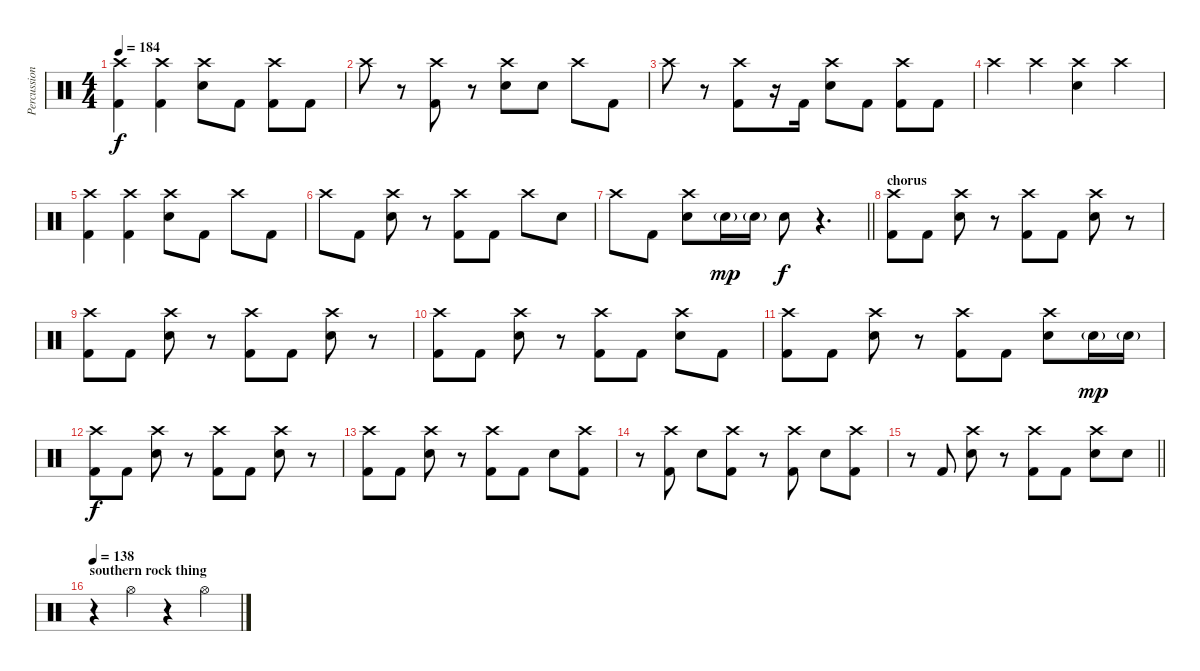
\track ("Percussion" "Percussion") {instrument percussion}
\staff {score}
\articulation defaults
\ts (4 4)
\tempo 184
\clef neutral
\ks c
("Crash high (hit)" "Kick (hit) 2").4{dy f} ("Crash high (hit)" "Kick (hit) 2").4 ("Crash high (hit)" "Electric Snare (hit)").8 "Kick (hit) 2".8 ("Crash high (hit)" "Kick (hit) 2").8 "Kick (hit) 2".8 |
"Crash high (hit)".8 r.8 ("Crash high (hit)" "Kick (hit) 2").8 r.8 ("Crash high (hit)" "Electric Snare (hit)").8 "Electric Snare (hit)".8 "Crash high (hit)".8 "Kick (hit) 2".8 |
"Crash high (hit)".8 r.8 ("Crash high (hit)" "Kick (hit) 2").8 r.16 "Kick (hit) 2".16 ("Crash high (hit)" "Electric Snare (hit)").8 "Kick (hit) 2".8 ("Crash high (hit)" "Kick (hit) 2").8 "Kick (hit) 2".8 |
"Crash high (hit)".4 "Crash high (hit)".4 ("Crash high (hit)" "Electric Snare (hit)").4 "Crash high (hit)".4 |
("Crash high (hit)" "Kick (hit) 2").4 ("Crash high (hit)" "Kick (hit) 2").4 ("Crash high (hit)" "Electric Snare (hit)").8 "Kick (hit) 2".8 "Crash high (hit)".8 "Kick (hit) 2".8 |
"Crash high (hit)".8 "Kick (hit) 2".8 ("Crash high (hit)" "Electric Snare (hit)").8 r.8 ("Crash high (hit)" "Kick (hit) 2").8 "Kick (hit) 2".8 "Crash high (hit)".8 "Electric Snare (hit)".8 |
\barLineRight lightlight "Crash high (hit)".8 "Kick (hit) 2".8
("Crash high (hit)" "Electric Snare (hit)").8 "Electric Snare (hit)"{g}.16{dy mp} "Electric Snare (hit)"{g}.16 "Electric Snare (hit)".8{dy f} r.4{d} |
\section ("" "chorus")
("Crash high (hit)" "Kick (hit) 2").8 "Kick (hit) 2".8 ("Crash high (hit)" "Electric Snare (hit)").8 r.8 ("Crash high (hit)" "Kick (hit) 2").8 "Kick (hit) 2".8 ("Crash high (hit)" "Electric Snare (hit)").8 r.8 |
("Crash high (hit)" "Kick (hit) 2").8 "Kick (hit) 2".8 ("Crash high (hit)" "Electric Snare (hit)").8 r.8 ("Crash high (hit)" "Kick (hit) 2").8 "Kick (hit) 2".8 ("Crash high (hit)" "Electric Snare (hit)").8 r.8 |
("Crash high (hit)" "Kick (hit) 2").8 "Kick (hit) 2".8 ("Crash high (hit)" "Electric Snare (hit)").8 r.8 ("Crash high (hit)" "Kick (hit) 2").8 "Kick (hit) 2".8 ("Crash high (hit)" "Electric Snare (hit)").8 "Kick (hit) 2".8 |
("Crash high (hit)" "Kick (hit) 2").8 "Kick (hit) 2".8 ("Crash high (hit)" "Electric Snare (hit)").8 r.8 ("Crash high (hit)" "Kick (hit) 2").8 "Kick (hit) 2".8 ("Crash high (hit)" "Electric Snare (hit)").8 "Electric Snare (hit)"{g}.16{dy mp} "Electric Snare (hit)"{g}.16 |
("Crash high (hit)" "Kick (hit) 2").8{dy f} "Kick (hit) 2".8 ("Crash high (hit)" "Electric Snare (hit)").8 r.8 ("Crash high (hit)" "Kick (hit) 2").8 "Kick (hit) 2".8 ("Crash high (hit)" "Electric Snare (hit)").8 r.8 |
("Crash high (hit)" "Kick (hit) 2").8 "Kick (hit) 2".8 ("Crash high (hit)" "Electric Snare (hit)").8 r.8 ("Crash high (hit)" "Kick (hit) 2").8 "Kick (hit) 2".8 "Electric Snare (hit)".8 ("Crash high (hit)" "Kick (hit) 2").8 |
r.8 ("Crash high (hit)" "Kick (hit) 2").8 "Electric Snare (hit)".8 ("Crash high (hit)" "Kick (hit) 2").8 r.8 ("Crash high (hit)" "Kick (hit) 2").8 "Electric Snare (hit)".8 ("Crash high (hit)" "Kick (hit) 2").8 |
\barLineRight lightlight
r.8 "Kick (hit) 2".8 ("Crash high (hit)" "Electric Snare (hit)").8 r.8 ("Crash high (hit)" "Kick (hit) 2").8 "Kick (hit) 2".8 ("Crash high (hit)" "Electric Snare (hit)").8 "Electric Snare (hit)".8 |
\section ("" "southern rock thing")
\tempo 138
r.4 "Hi-Hat (open)".4 r.4 "Hi-Hat (open)".4
